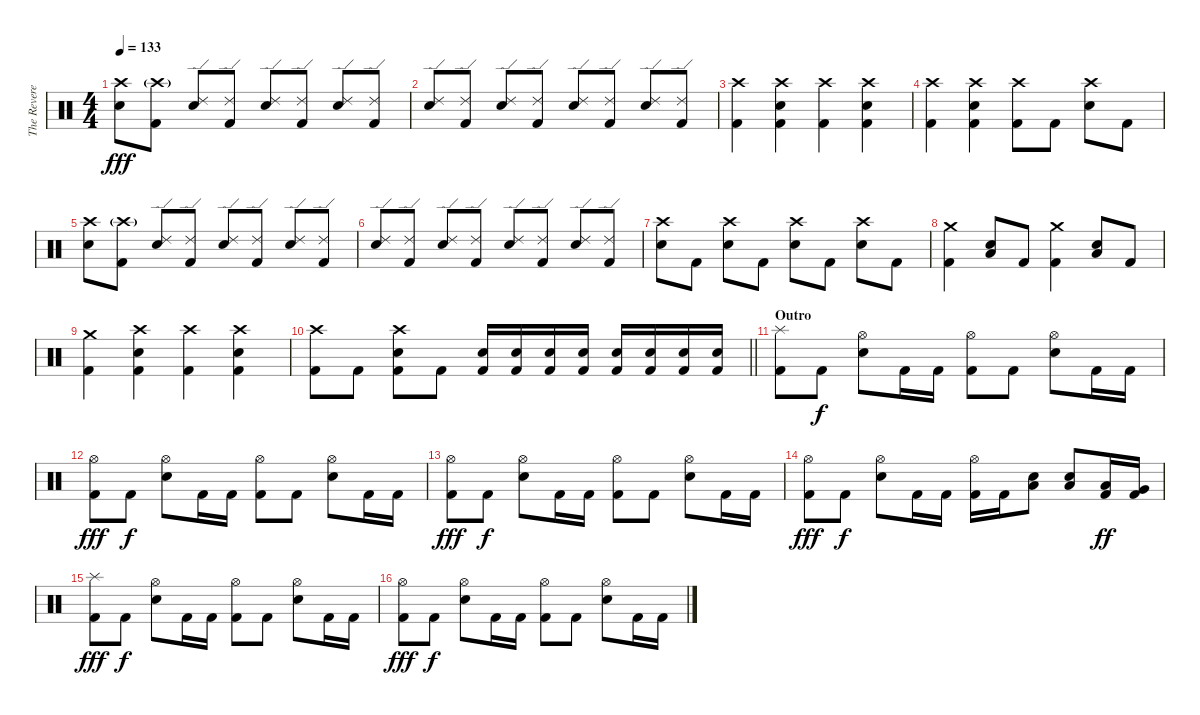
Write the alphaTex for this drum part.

\track ("The Reverend (R.I.P.) [Drums]" "The Revere") {instrument percussion}
\staff {score}
\articulation defaults
\ts (4 4)
\tempo 133
\clef neutral
\ks c
("Crash high (hit)" "Electric Snare (hit)").8{dy fff} ("Crash high (hit)"{g} "Kick (hit) 2").8 ("Ride (edge) 2" "Electric Snare (hit)").8 ("Ride (edge) 2" "Kick (hit) 2").8 ("Ride (edge) 2" "Electric Snare (hit)").8 ("Ride (edge) 2" "Kick (hit) 2").8 ("Ride (edge) 2" "Electric Snare (hit)").8 ("Ride (edge) 2" "Kick (hit) 2").8 |
("Ride (edge) 2" "Electric Snare (hit)").8 ("Ride (edge) 2" "Kick (hit) 2").8 ("Ride (edge) 2" "Electric Snare (hit)").8 ("Ride (edge) 2" "Kick (hit) 2").8 ("Ride (edge) 2" "Electric Snare (hit)").8 ("Ride (edge) 2" "Kick (hit) 2").8 ("Ride (edge) 2" "Electric Snare (hit)").8 ("Ride (edge) 2" "Kick (hit) 2").8 |
("Crash high (hit)" "Kick (hit) 2").4 ("Crash high (hit)" "Electric Snare (hit)" "Kick (hit) 2").4 ("Crash high (hit)" "Kick (hit) 2").4 ("Crash high (hit)" "Electric Snare (hit)" "Kick (hit) 2").4 |
("Crash high (hit)" "Kick (hit) 2").4 ("Crash high (hit)" "Electric Snare (hit)" "Kick (hit) 2").4 ("Crash high (hit)" "Kick (hit) 2").8 "Kick (hit) 2".8 ("Crash high (hit)" "Electric Snare (hit)").8 "Kick (hit) 2".8 |
("Crash high (hit)" "Electric Snare (hit)").8 ("Crash high (hit)"{g} "Kick (hit) 2").8 ("Ride (edge) 2" "Electric Snare (hit)").8 ("Ride (edge) 2" "Kick (hit) 2").8 ("Ride (edge) 2" "Electric Snare (hit)").8 ("Ride (edge) 2" "Kick (hit) 2").8 ("Ride (edge) 2" "Electric Snare (hit)").8 ("Ride (edge) 2" "Kick (hit) 2").8 |
("Ride (edge) 2" "Electric Snare (hit)").8 ("Ride (edge) 2" "Kick (hit) 2").8 ("Ride (edge) 2" "Electric Snare (hit)").8 ("Ride (edge) 2" "Kick (hit) 2").8 ("Ride (edge) 2" "Electric Snare (hit)").8 ("Ride (edge) 2" "Kick (hit) 2").8 ("Ride (edge) 2" "Electric Snare (hit)").8 ("Ride (edge) 2" "Kick (hit) 2").8 |
("Crash high (hit)" "Electric Snare (hit)").8 "Kick (hit) 2".8 ("Crash high (hit)" "Electric Snare (hit)").8 "Kick (hit) 2".8 ("Crash high (hit)" "Electric Snare (hit)").8 "Kick (hit) 2".8 ("Crash high (hit)" "Electric Snare (hit)").8 "Kick (hit) 2".8 |
("Crash medium (hit)" "Kick (hit) 2").4 ("Low Floor Tom (hit)" "Electric Snare (hit)").8 "Kick (hit) 2".8 ("Crash medium (hit)" "Kick (hit) 2").4 ("Low Floor Tom (hit)" "Electric Snare (hit)").8 "Kick (hit) 2".8 |
("Crash medium (hit)" "Kick (hit) 2").4 ("Crash high (hit)" "Electric Snare (hit)" "Kick (hit) 2").4 ("Crash high (hit)" "Kick (hit) 2").4 ("Crash high (hit)" "Electric Snare (hit)" "Kick (hit) 2").4 |
\barLineRight lightlight
("Crash high (hit)" "Kick (hit) 2").8 "Kick (hit) 2".8 ("Crash high (hit)" "Electric Snare (hit)" "Kick (hit) 2").8 "Kick (hit) 2".8 ("Electric Snare (hit)" "Kick (hit) 2").16 ("Electric Snare (hit)" "Kick (hit) 2").16 ("Electric Snare (hit)" "Kick (hit) 2").16 ("Electric Snare (hit)" "Kick (hit) 2").16 ("Electric Snare (hit)" "Kick (hit) 2").16 ("Electric Snare (hit)" "Kick (hit) 2").16 ("Electric Snare (hit)" "Kick (hit) 2").16 ("Electric Snare (hit)" "Kick (hit) 2").16 |
\section ("" "Outro")
("Splash (hit)" "Kick (hit) 2").8 "Kick (hit) 2".8{dy f} ("Hi-Hat (open)" "Electric Snare (hit)").8 "Kick (hit) 2".16 "Kick (hit) 2".16 ("Hi-Hat (open)" "Kick (hit) 2").8 "Kick (hit) 2".8 ("Hi-Hat (open)" "Electric Snare (hit)").8 "Kick (hit) 2".16 "Kick (hit) 2".16 |
("Hi-Hat (open)" "Kick (hit) 2").8{dy fff} "Kick (hit) 2".8{dy f} ("Hi-Hat (open)" "Electric Snare (hit)").8 "Kick (hit) 2".16 "Kick (hit) 2".16 ("Hi-Hat (open)" "Kick (hit) 2").8 "Kick (hit) 2".8 ("Hi-Hat (open)" "Electric Snare (hit)").8 "Kick (hit) 2".16 "Kick (hit) 2".16 |
("Hi-Hat (open)" "Kick (hit) 2").8{dy fff} "Kick (hit) 2".8{dy f} ("Hi-Hat (open)" "Electric Snare (hit)").8 "Kick (hit) 2".16 "Kick (hit) 2".16 ("Hi-Hat (open)" "Kick (hit) 2").8 "Kick (hit) 2".8 ("Hi-Hat (open)" "Electric Snare (hit)").8 "Kick (hit) 2".16 "Kick (hit) 2".16 |
("Hi-Hat (open)" "Kick (hit) 2").8{dy fff} "Kick (hit) 2".8{dy f} ("Hi-Hat (open)" "Electric Snare (hit)").8 "Kick (hit) 2".16 "Kick (hit) 2".16 ("Hi-Hat (open)" "Kick (hit) 2").16 "Kick (hit) 2".16 ("Low Floor Tom (hit)" "Electric Snare (hit)").8 ("Low Floor Tom (hit)" "Electric Snare (hit)").8 ("Low Tom (hit)" "Kick (hit) 2").16{dy ff} ("Very Low Tom (hit)" "Kick (hit) 2").16 |
("Splash (hit)" "Kick (hit) 2").8{dy fff} "Kick (hit) 2".8{dy f} ("Hi-Hat (open)" "Electric Snare (hit)").8 "Kick (hit) 2".16 "Kick (hit) 2".16 ("Hi-Hat (open)" "Kick (hit) 2").8 "Kick (hit) 2".8 ("Hi-Hat (open)" "Electric Snare (hit)").8 "Kick (hit) 2".16 "Kick (hit) 2".16 |
("Hi-Hat (open)" "Kick (hit) 2").8{dy fff} "Kick (hit) 2".8{dy f} ("Hi-Hat (open)" "Electric Snare (hit)").8 "Kick (hit) 2".16 "Kick (hit) 2".16 ("Hi-Hat (open)" "Kick (hit) 2").8 "Kick (hit) 2".8 ("Hi-Hat (open)" "Electric Snare (hit)").8 "Kick (hit) 2".16 "Kick (hit) 2".16
